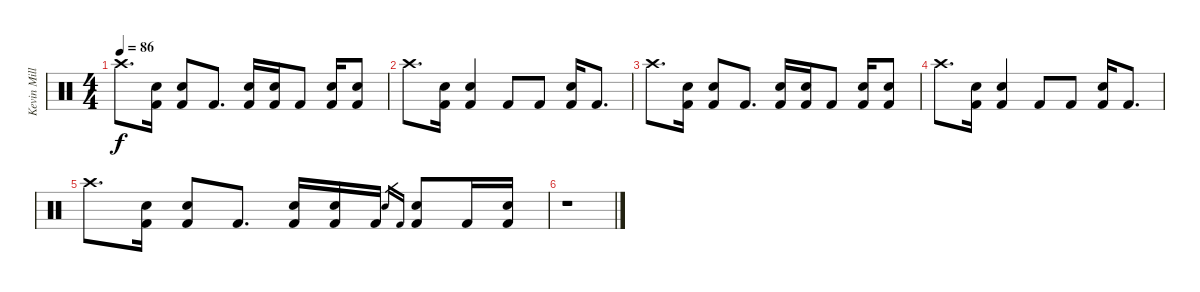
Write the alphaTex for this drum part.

\track ("Kevin Miller (Drums)" "Kevin Mill") {instrument percussion}
\staff {score}
\articulation defaults
\ts (4 4)
\tempo 86
\clef neutral
\ks c "Crash high (hit)".8{d dy f}
("Electric Snare (hit)" "Kick (hit) 2").16 ("Electric Snare (hit)" "Kick (hit) 2").8 "Kick (hit) 2".8{d} ("Electric Snare (hit)" "Kick (hit) 2").16 ("Electric Snare (hit)" "Kick (hit) 2").16 "Kick (hit) 2".8 ("Electric Snare (hit)" "Kick (hit) 2").16 ("Electric Snare (hit)" "Kick (hit) 2").8 |
"Crash high (hit)".8{d} ("Electric Snare (hit)" "Kick (hit) 2").16 ("Electric Snare (hit)" "Kick (hit) 2").4 "Kick (hit) 2".8 "Kick (hit) 2".8 ("Electric Snare (hit)" "Kick (hit) 2").16 "Kick (hit) 2".8{d} |
"Crash high (hit)".8{d} ("Electric Snare (hit)" "Kick (hit) 2").16 ("Electric Snare (hit)" "Kick (hit) 2").8 "Kick (hit) 2".8{d} ("Electric Snare (hit)" "Kick (hit) 2").16 ("Electric Snare (hit)" "Kick (hit) 2").16 "Kick (hit) 2".8 ("Electric Snare (hit)" "Kick (hit) 2").16 ("Electric Snare (hit)" "Kick (hit) 2").8 |
"Crash high (hit)".8{d} ("Electric Snare (hit)" "Kick (hit) 2").16 ("Electric Snare (hit)" "Kick (hit) 2").4 "Kick (hit) 2".8 "Kick (hit) 2".8 ("Electric Snare (hit)" "Kick (hit) 2").16 "Kick (hit) 2".8{d} |
"Crash high (hit)".8{d} ("Electric Snare (hit)" "Kick (hit) 2").16 ("Electric Snare (hit)" "Kick (hit) 2").8 "Kick (hit) 2".8{d} ("Electric Snare (hit)" "Kick (hit) 2").16 ("Electric Snare (hit)" "Kick (hit) 2").16 "Kick (hit) 2".16 "Electric Snare (hit)".16{gr} "Kick (hit) 2".16{gr} ("Electric Snare (hit)" "Kick (hit) 2").8 "Kick (hit) 2".16 ("Electric Snare (hit)" "Kick (hit) 2").16 |
r.1
